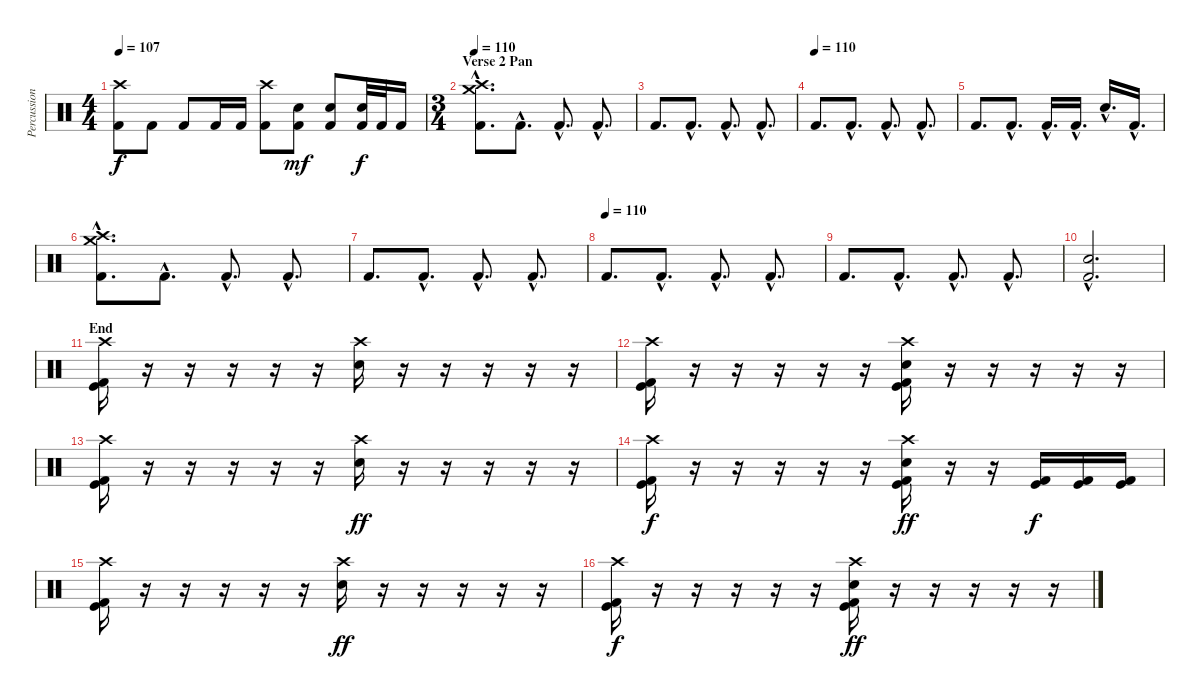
\track ("Percussion" "Percussion") {instrument percussion}
\staff {score}
\articulation defaults
\ts (4 4)
\tempo 107
\clef neutral
\ks c
("Crash high (hit)" "Kick (hit) 2").8{dy f} "Kick (hit) 2".8 "Kick (hit) 2".8 "Kick (hit) 2".16 "Kick (hit) 2".16 ("Crash high (hit)" "Kick (hit) 2").8 ("Electric Snare (hit)" "Kick (hit) 2").8{dy mf} ("Electric Snare (hit)" "Kick (hit) 2").8 ("Electric Snare (hit)" "Kick (hit) 2").32{dy f} "Kick (hit) 2".32 "Kick (hit) 2".16 |
\ts (3 4)
\section ("" "Verse 2 Pan")
\tempo 110
("Crash high (hit)"{hac} "Crash medium (hit)"{hac} "Kick (hit) 2").8{d} "Kick (hit) 2"{hac}.8{d} "Kick (hit) 2"{hac}.8{d} "Kick (hit) 2"{hac}.8{d} |
"Kick (hit) 2".8{d} "Kick (hit) 2"{hac}.8{d} "Kick (hit) 2"{hac}.8{d} "Kick (hit) 2"{hac}.8{d} |
\tempo (110)
"Kick (hit) 2".8{d} "Kick (hit) 2"{hac}.8{d} "Kick (hit) 2"{hac}.8{d} "Kick (hit) 2"{hac}.8{d} |
"Kick (hit) 2".8{d} "Kick (hit) 2"{hac}.8{d} "Kick (hit) 2"{hac}.16{d} "Kick (hit) 2"{hac}.16{d} "Electric Snare (hit)"{hac}.16{d} "Kick (hit) 2"{hac}.16{d} |
("Crash high (hit)"{hac} "Crash medium (hit)"{hac} "Kick (hit) 2").8{d} "Kick (hit) 2"{hac}.8{d} "Kick (hit) 2"{hac}.8{d} "Kick (hit) 2"{hac}.8{d} |
"Kick (hit) 2".8{d} "Kick (hit) 2"{hac}.8{d} "Kick (hit) 2"{hac}.8{d} "Kick (hit) 2"{hac}.8{d} |
\tempo (110)
"Kick (hit) 2".8{d} "Kick (hit) 2"{hac}.8{d} "Kick (hit) 2"{hac}.8{d} "Kick (hit) 2"{hac}.8{d} |
"Kick (hit) 2".8{d} "Kick (hit) 2"{hac}.8{d} "Kick (hit) 2"{hac}.8{d} "Kick (hit) 2"{hac}.8{d} |
("Electric Snare (hit)"{hac} "Kick (hit) 2"{hac}).2{d} |
\section ("" "End")
("Crash high (hit)" "Kick (hit)" "Kick (hit) 2").16 r.16 r.16 r.16 r.16 r.16 ("Crash high (hit)" "Electric Snare (hit)").16 r.16 r.16 r.16 r.16 r.16 |
("Crash high (hit)" "Kick (hit)" "Kick (hit) 2").16 r.16 r.16 r.16 r.16 r.16 ("Crash high (hit)" "Electric Snare (hit)" "Kick (hit)" "Kick (hit) 2").16 r.16 r.16 r.16 r.16 r.16 |
("Crash high (hit)" "Kick (hit)" "Kick (hit) 2").16 r.16 r.16 r.16 r.16 r.16 ("Crash high (hit)" "Electric Snare (hit)").16{dy ff} r.16 r.16 r.16 r.16 r.16 |
("Crash high (hit)" "Kick (hit)" "Kick (hit) 2").16{dy f} r.16 r.16 r.16 r.16 r.16 ("Crash high (hit)" "Electric Snare (hit)" "Kick (hit)" "Kick (hit) 2").16{dy ff} r.16 r.16 ("Kick (hit)" "Kick (hit) 2").16{dy f} ("Kick (hit)" "Kick (hit) 2").16 ("Kick (hit)" "Kick (hit) 2").16 |
("Crash high (hit)" "Kick (hit)" "Kick (hit) 2").16 r.16 r.16 r.16 r.16 r.16 ("Crash high (hit)" "Electric Snare (hit)").16{dy ff} r.16 r.16 r.16 r.16 r.16 |
("Crash high (hit)" "Kick (hit)" "Kick (hit) 2").16{dy f} r.16 r.16 r.16 r.16 r.16 ("Crash high (hit)" "Electric Snare (hit)" "Kick (hit)" "Kick (hit) 2").16{dy ff} r.16 r.16 r.16 r.16 r.16
